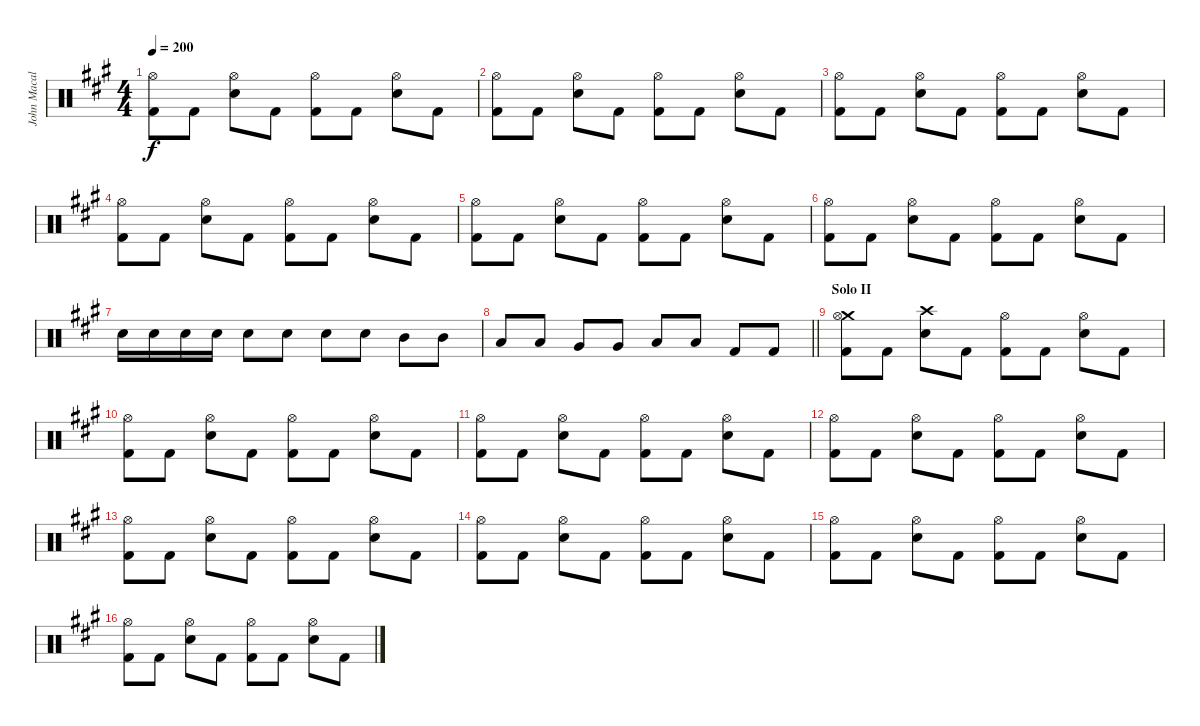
\track ("John Macaluso" "John Macal") {instrument percussion}
\staff {score}
\articulation defaults
\ts (4 4)
\tempo 200
\clef neutral
\ks a
("Hi-Hat (open)" "Kick (hit) 2").8{dy f} "Kick (hit) 2".8 ("Hi-Hat (open)" "Snare (hit) 2").8 "Kick (hit) 2".8 ("Hi-Hat (open)" "Kick (hit) 2").8 "Kick (hit) 2".8 ("Hi-Hat (open)" "Snare (hit) 2").8 "Kick (hit) 2".8 |
("Hi-Hat (open)" "Kick (hit) 2").8 "Kick (hit) 2".8 ("Hi-Hat (open)" "Snare (hit) 2").8 "Kick (hit) 2".8 ("Hi-Hat (open)" "Kick (hit) 2").8 "Kick (hit) 2".8 ("Hi-Hat (open)" "Snare (hit) 2").8 "Kick (hit) 2".8 |
("Hi-Hat (open)" "Kick (hit) 2").8 "Kick (hit) 2".8 ("Hi-Hat (open)" "Snare (hit) 2").8 "Kick (hit) 2".8 ("Hi-Hat (open)" "Kick (hit) 2").8 "Kick (hit) 2".8 ("Hi-Hat (open)" "Snare (hit) 2").8 "Kick (hit) 2".8 |
("Hi-Hat (open)" "Kick (hit) 2").8 "Kick (hit) 2".8 ("Hi-Hat (open)" "Snare (hit) 2").8 "Kick (hit) 2".8 ("Hi-Hat (open)" "Kick (hit) 2").8 "Kick (hit) 2".8 ("Hi-Hat (open)" "Snare (hit) 2").8 "Kick (hit) 2".8 |
("Hi-Hat (open)" "Kick (hit) 2").8 "Kick (hit) 2".8 ("Hi-Hat (open)" "Snare (hit) 2").8 "Kick (hit) 2".8 ("Hi-Hat (open)" "Kick (hit) 2").8 "Kick (hit) 2".8 ("Hi-Hat (open)" "Snare (hit) 2").8 "Kick (hit) 2".8 |
("Hi-Hat (open)" "Kick (hit) 2").8 "Kick (hit) 2".8 ("Hi-Hat (open)" "Snare (hit) 2").8 "Kick (hit) 2".8 ("Hi-Hat (open)" "Kick (hit) 2").8 "Kick (hit) 2".8 ("Hi-Hat (open)" "Snare (hit) 2").8 "Kick (hit) 2".8 |
"Snare (hit) 2".16 "Snare (hit) 2".16 "Snare (hit) 2".16 "Snare (hit) 2".16 "Snare (hit) 2".8 "Snare (hit) 2".8 "Snare (hit) 2".8 "Snare (hit) 2".8 "Mid Tom (hit)".8 "Mid Tom (hit)".8 |
\barLineRight lightlight "Low Tom (hit)".8 "Low Tom (hit)".8 "Very Low Tom (hit)".8 "Very Low Tom (hit)".8 "Low Floor Tom (hit)".8 "Low Floor Tom (hit)".8 "Kick (hit) 2".8 "Kick (hit) 2".8
|
\section ("" "Solo II")
("Crash medium (hit)" "Hi-Hat (open)" "Kick (hit) 2").8 "Kick (hit) 2".8 ("Crash high (hit)" "Snare (hit) 2").8 "Kick (hit) 2".8 ("Hi-Hat (open)" "Kick (hit) 2").8 "Kick (hit) 2".8 ("Hi-Hat (open)" "Snare (hit) 2").8 "Kick (hit) 2".8 |
("Hi-Hat (open)" "Kick (hit) 2").8 "Kick (hit) 2".8 ("Hi-Hat (open)" "Snare (hit) 2").8 "Kick (hit) 2".8 ("Hi-Hat (open)" "Kick (hit) 2").8 "Kick (hit) 2".8 ("Hi-Hat (open)" "Snare (hit) 2").8 "Kick (hit) 2".8 |
("Hi-Hat (open)" "Kick (hit) 2").8 "Kick (hit) 2".8 ("Hi-Hat (open)" "Snare (hit) 2").8 "Kick (hit) 2".8 ("Hi-Hat (open)" "Kick (hit) 2").8 "Kick (hit) 2".8 ("Hi-Hat (open)" "Snare (hit) 2").8 "Kick (hit) 2".8 |
("Hi-Hat (open)" "Kick (hit) 2").8 "Kick (hit) 2".8 ("Hi-Hat (open)" "Snare (hit) 2").8 "Kick (hit) 2".8 ("Hi-Hat (open)" "Kick (hit) 2").8 "Kick (hit) 2".8 ("Hi-Hat (open)" "Snare (hit) 2").8 "Kick (hit) 2".8 |
("Hi-Hat (open)" "Kick (hit) 2").8 "Kick (hit) 2".8 ("Hi-Hat (open)" "Snare (hit) 2").8 "Kick (hit) 2".8 ("Hi-Hat (open)" "Kick (hit) 2").8 "Kick (hit) 2".8 ("Hi-Hat (open)" "Snare (hit) 2").8 "Kick (hit) 2".8 |
("Hi-Hat (open)" "Kick (hit) 2").8 "Kick (hit) 2".8 ("Hi-Hat (open)" "Snare (hit) 2").8 "Kick (hit) 2".8 ("Hi-Hat (open)" "Kick (hit) 2").8 "Kick (hit) 2".8 ("Hi-Hat (open)" "Snare (hit) 2").8 "Kick (hit) 2".8 |
("Hi-Hat (open)" "Kick (hit) 2").8 "Kick (hit) 2".8 ("Hi-Hat (open)" "Snare (hit) 2").8 "Kick (hit) 2".8 ("Hi-Hat (open)" "Kick (hit) 2").8 "Kick (hit) 2".8 ("Hi-Hat (open)" "Snare (hit) 2").8 "Kick (hit) 2".8 |
("Hi-Hat (open)" "Kick (hit) 2").8 "Kick (hit) 2".8 ("Hi-Hat (open)" "Snare (hit) 2").8 "Kick (hit) 2".8 ("Hi-Hat (open)" "Kick (hit) 2").8 "Kick (hit) 2".8 ("Hi-Hat (open)" "Snare (hit) 2").8 "Kick (hit) 2".8
